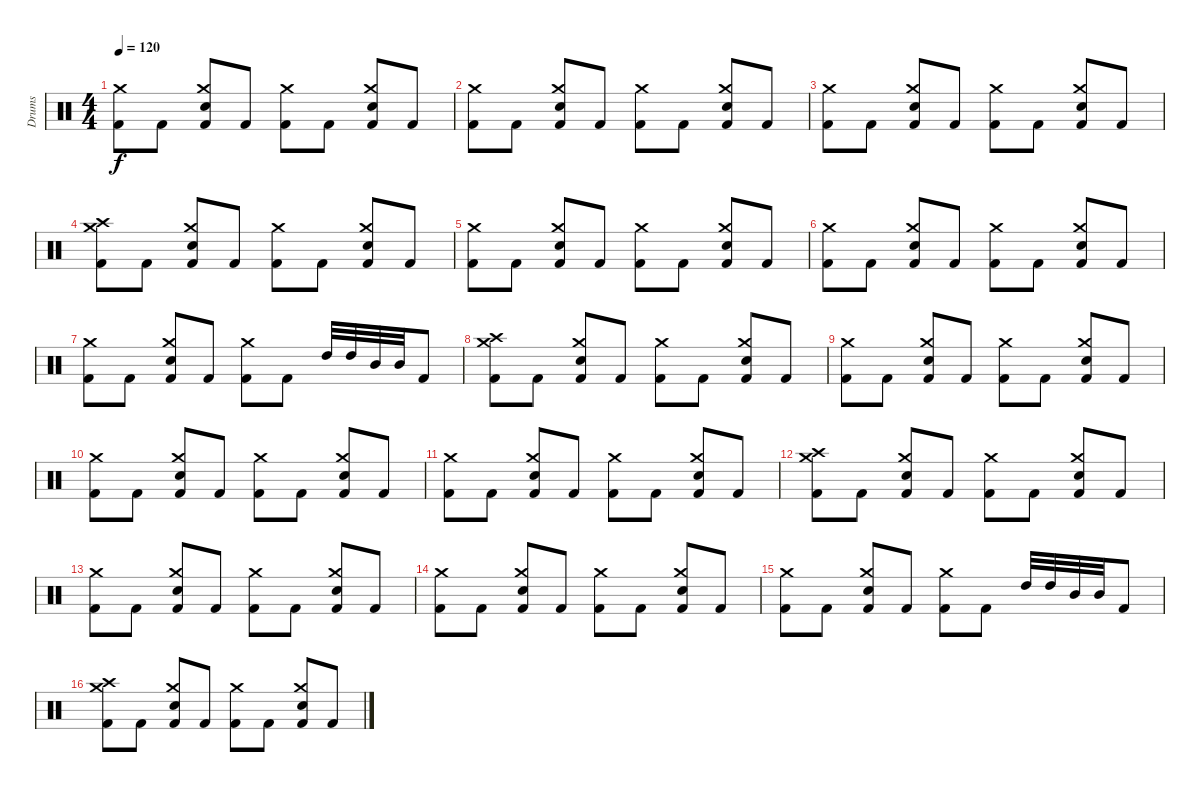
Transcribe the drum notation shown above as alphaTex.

\track ("Drums" "Drums") {instrument percussion}
\staff {score}
\articulation defaults
\ts (4 4)
\tempo 120
\clef neutral
\ks c
("Kick (hit) 2" "Crash medium (hit)").8{dy f} "Kick (hit) 2".8 ("Kick (hit) 2" "Snare (hit) 2" "Crash medium (hit)").8 "Kick (hit) 2".8 ("Kick (hit) 2" "Crash medium (hit)").8 "Kick (hit) 2".8 ("Kick (hit) 2" "Snare (hit) 2" "Crash medium (hit)").8 "Kick (hit) 2".8 |
("Kick (hit) 2" "Crash medium (hit)").8 "Kick (hit) 2".8 ("Kick (hit) 2" "Snare (hit) 2" "Crash medium (hit)").8 "Kick (hit) 2".8 ("Kick (hit) 2" "Crash medium (hit)").8 "Kick (hit) 2".8 ("Kick (hit) 2" "Snare (hit) 2" "Crash medium (hit)").8 "Kick (hit) 2".8 |
("Kick (hit) 2" "Crash medium (hit)").8 "Kick (hit) 2".8 ("Kick (hit) 2" "Snare (hit) 2" "Crash medium (hit)").8 "Kick (hit) 2".8 ("Kick (hit) 2" "Crash medium (hit)").8 "Kick (hit) 2".8 ("Kick (hit) 2" "Snare (hit) 2" "Crash medium (hit)").8 "Kick (hit) 2".8 |
("Kick (hit) 2" "Crash high (hit)" "Crash medium (hit)").8 "Kick (hit) 2".8 ("Kick (hit) 2" "Snare (hit) 2" "Crash medium (hit)").8 "Kick (hit) 2".8 ("Kick (hit) 2" "Crash medium (hit)").8 "Kick (hit) 2".8 ("Kick (hit) 2" "Snare (hit) 2" "Crash medium (hit)").8 "Kick (hit) 2".8 |
("Kick (hit) 2" "Crash medium (hit)").8 "Kick (hit) 2".8 ("Kick (hit) 2" "Snare (hit) 2" "Crash medium (hit)").8 "Kick (hit) 2".8 ("Kick (hit) 2" "Crash medium (hit)").8 "Kick (hit) 2".8 ("Kick (hit) 2" "Snare (hit) 2" "Crash medium (hit)").8 "Kick (hit) 2".8 |
("Kick (hit) 2" "Crash medium (hit)").8 "Kick (hit) 2".8 ("Kick (hit) 2" "Snare (hit) 2" "Crash medium (hit)").8 "Kick (hit) 2".8 ("Kick (hit) 2" "Crash medium (hit)").8 "Kick (hit) 2".8 ("Kick (hit) 2" "Snare (hit) 2" "Crash medium (hit)").8 "Kick (hit) 2".8 |
("Kick (hit) 2" "Crash medium (hit)").8 "Kick (hit) 2".8 ("Kick (hit) 2" "Snare (hit) 2" "Crash medium (hit)").8 "Kick (hit) 2".8 ("Kick (hit) 2" "Crash medium (hit)").8 "Kick (hit) 2".8 "High Tom (hit)".32 "High Tom (hit)".32 "Mid Tom (hit)".32 "Mid Tom (hit)".32 "Kick (hit) 2".8 |
("Kick (hit) 2" "Crash high (hit)" "Crash medium (hit)").8 "Kick (hit) 2".8 ("Kick (hit) 2" "Snare (hit) 2" "Crash medium (hit)").8 "Kick (hit) 2".8 ("Kick (hit) 2" "Crash medium (hit)").8 "Kick (hit) 2".8 ("Kick (hit) 2" "Snare (hit) 2" "Crash medium (hit)").8 "Kick (hit) 2".8 |
("Kick (hit) 2" "Crash medium (hit)").8 "Kick (hit) 2".8 ("Kick (hit) 2" "Snare (hit) 2" "Crash medium (hit)").8 "Kick (hit) 2".8 ("Kick (hit) 2" "Crash medium (hit)").8 "Kick (hit) 2".8 ("Kick (hit) 2" "Snare (hit) 2" "Crash medium (hit)").8 "Kick (hit) 2".8 |
("Kick (hit) 2" "Crash medium (hit)").8 "Kick (hit) 2".8 ("Kick (hit) 2" "Snare (hit) 2" "Crash medium (hit)").8 "Kick (hit) 2".8 ("Kick (hit) 2" "Crash medium (hit)").8 "Kick (hit) 2".8 ("Kick (hit) 2" "Snare (hit) 2" "Crash medium (hit)").8 "Kick (hit) 2".8 |
("Kick (hit) 2" "Crash medium (hit)").8 "Kick (hit) 2".8 ("Kick (hit) 2" "Snare (hit) 2" "Crash medium (hit)").8 "Kick (hit) 2".8 ("Kick (hit) 2" "Crash medium (hit)").8 "Kick (hit) 2".8 ("Kick (hit) 2" "Snare (hit) 2" "Crash medium (hit)").8 "Kick (hit) 2".8 |
("Kick (hit) 2" "Crash high (hit)" "Crash medium (hit)").8 "Kick (hit) 2".8 ("Kick (hit) 2" "Snare (hit) 2" "Crash medium (hit)").8 "Kick (hit) 2".8 ("Kick (hit) 2" "Crash medium (hit)").8 "Kick (hit) 2".8 ("Kick (hit) 2" "Snare (hit) 2" "Crash medium (hit)").8 "Kick (hit) 2".8 |
("Kick (hit) 2" "Crash medium (hit)").8 "Kick (hit) 2".8 ("Kick (hit) 2" "Snare (hit) 2" "Crash medium (hit)").8 "Kick (hit) 2".8 ("Kick (hit) 2" "Crash medium (hit)").8 "Kick (hit) 2".8 ("Kick (hit) 2" "Snare (hit) 2" "Crash medium (hit)").8 "Kick (hit) 2".8 |
("Kick (hit) 2" "Crash medium (hit)").8 "Kick (hit) 2".8 ("Kick (hit) 2" "Snare (hit) 2" "Crash medium (hit)").8 "Kick (hit) 2".8 ("Kick (hit) 2" "Crash medium (hit)").8 "Kick (hit) 2".8 ("Kick (hit) 2" "Snare (hit) 2" "Crash medium (hit)").8 "Kick (hit) 2".8 |
("Kick (hit) 2" "Crash medium (hit)").8 "Kick (hit) 2".8 ("Kick (hit) 2" "Snare (hit) 2" "Crash medium (hit)").8 "Kick (hit) 2".8 ("Kick (hit) 2" "Crash medium (hit)").8 "Kick (hit) 2".8 "High Tom (hit)".32 "High Tom (hit)".32 "Mid Tom (hit)".32 "Mid Tom (hit)".32 "Kick (hit) 2".8 |
("Kick (hit) 2" "Crash high (hit)" "Crash medium (hit)").8 "Kick (hit) 2".8 ("Kick (hit) 2" "Snare (hit) 2" "Crash medium (hit)").8 "Kick (hit) 2".8 ("Kick (hit) 2" "Crash medium (hit)").8 "Kick (hit) 2".8 ("Kick (hit) 2" "Snare (hit) 2" "Crash medium (hit)").8 "Kick (hit) 2".8
